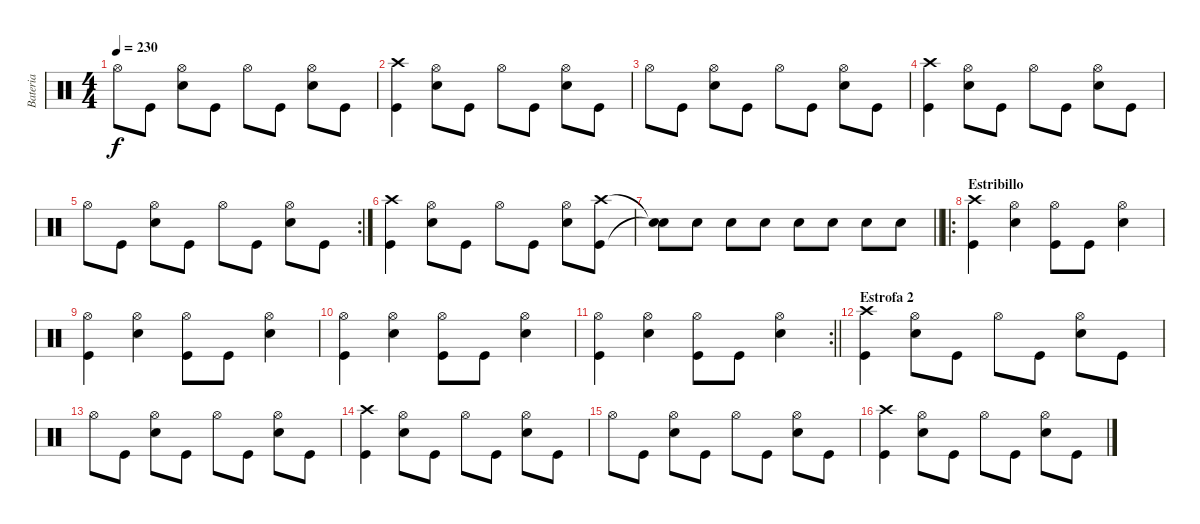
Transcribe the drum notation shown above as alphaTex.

\track ("Bateria" "Bateria") {instrument percussion}
\staff {score}
\articulation defaults
\ts (4 4)
\tempo 230
\clef neutral
\ks c "Hi-Hat (open)".8{dy f} "Kick (hit)".8
("Hi-Hat (open)" "Snare (hit) 2").8 "Kick (hit)".8 "Hi-Hat (open)".8 "Kick (hit)".8 ("Hi-Hat (open)" "Snare (hit) 2").8 "Kick (hit)".8 |
("Crash high (hit)" "Kick (hit)").4 ("Hi-Hat (open)" "Snare (hit) 2").8 "Kick (hit)".8 "Hi-Hat (open)".8 "Kick (hit)".8 ("Hi-Hat (open)" "Snare (hit) 2").8 "Kick (hit)".8 |
"Hi-Hat (open)".8 "Kick (hit)".8 ("Hi-Hat (open)" "Snare (hit) 2").8 "Kick (hit)".8 "Hi-Hat (open)".8 "Kick (hit)".8 ("Hi-Hat (open)" "Snare (hit) 2").8 "Kick (hit)".8 |
("Crash high (hit)" "Kick (hit)").4 ("Hi-Hat (open)" "Snare (hit) 2").8 "Kick (hit)".8 "Hi-Hat (open)".8 "Kick (hit)".8 ("Hi-Hat (open)" "Snare (hit) 2").8 "Kick (hit)".8 |
\rc 2 "Hi-Hat (open)".8 "Kick (hit)".8
("Hi-Hat (open)" "Snare (hit) 2").8 "Kick (hit)".8 "Hi-Hat (open)".8 "Kick (hit)".8 ("Hi-Hat (open)" "Snare (hit) 2").8 "Kick (hit)".8 |
("Crash high (hit)" "Kick (hit)").4 ("Hi-Hat (open)" "Snare (hit) 2").8 "Kick (hit)".8 "Hi-Hat (open)".8 "Kick (hit)".8 ("Hi-Hat (open)" "Snare (hit) 2").8 ("Crash high (hit)" "Kick (hit)").8 |
\barLineRight lightlight
("Snare (hit)"{t} "Snare (hit)"{t}).8 "Snare (hit) 2".8 "Snare (hit) 2".8 "Snare (hit) 2".8 "Snare (hit) 2".8 "Snare (hit) 2".8 "Snare (hit) 2".8 "Snare (hit) 2".8 |
\ro
\section ("" "Estribillo")
("Crash high (hit)" "Kick (hit)").4 ("Hi-Hat (open)" "Snare (hit) 2").4 ("Hi-Hat (open)" "Kick (hit)").8 "Kick (hit)".8 ("Hi-Hat (open)" "Snare (hit) 2").4 |
("Hi-Hat (open)" "Kick (hit)").4 ("Hi-Hat (open)" "Snare (hit) 2").4 ("Hi-Hat (open)" "Kick (hit)").8 "Kick (hit)".8 ("Hi-Hat (open)" "Snare (hit) 2").4 |
("Hi-Hat (open)" "Kick (hit)").4 ("Hi-Hat (open)" "Snare (hit) 2").4 ("Hi-Hat (open)" "Kick (hit)").8 "Kick (hit)".8 ("Hi-Hat (open)" "Snare (hit) 2").4 |
\rc 2
\barLineRight lightlight
("Hi-Hat (open)" "Kick (hit)").4 ("Hi-Hat (open)" "Snare (hit) 2").4 ("Hi-Hat (open)" "Kick (hit)").8 "Kick (hit)".8 ("Hi-Hat (open)" "Snare (hit) 2").4 |
\section ("" "Estrofa 2")
("Crash high (hit)" "Kick (hit)").4 ("Hi-Hat (open)" "Snare (hit) 2").8 "Kick (hit)".8 "Hi-Hat (open)".8 "Kick (hit)".8 ("Hi-Hat (open)" "Snare (hit) 2").8 "Kick (hit)".8 |
"Hi-Hat (open)".8 "Kick (hit)".8 ("Hi-Hat (open)" "Snare (hit) 2").8 "Kick (hit)".8 "Hi-Hat (open)".8 "Kick (hit)".8 ("Hi-Hat (open)" "Snare (hit) 2").8 "Kick (hit)".8 |
("Crash high (hit)" "Kick (hit)").4 ("Hi-Hat (open)" "Snare (hit) 2").8 "Kick (hit)".8 "Hi-Hat (open)".8 "Kick (hit)".8 ("Hi-Hat (open)" "Snare (hit) 2").8 "Kick (hit)".8 |
"Hi-Hat (open)".8 "Kick (hit)".8 ("Hi-Hat (open)" "Snare (hit) 2").8 "Kick (hit)".8 "Hi-Hat (open)".8 "Kick (hit)".8 ("Hi-Hat (open)" "Snare (hit) 2").8 "Kick (hit)".8 |
("Crash high (hit)" "Kick (hit)").4 ("Hi-Hat (open)" "Snare (hit) 2").8 "Kick (hit)".8 "Hi-Hat (open)".8 "Kick (hit)".8 ("Hi-Hat (open)" "Snare (hit) 2").8 "Kick (hit)".8
